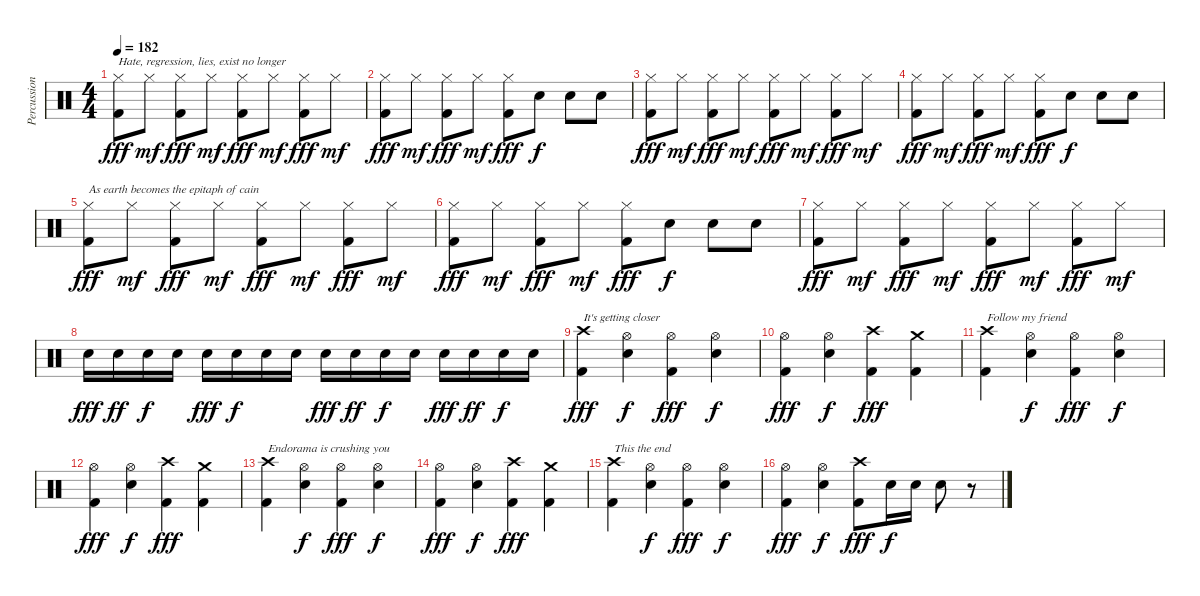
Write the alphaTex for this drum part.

\track ("Percussion" "Percussion") {instrument percussion}
\staff {score}
\articulation defaults
\ts (4 4)
\tempo 182
\clef neutral
\ks c
("Hi-Hat (closed)" "Kick (hit) 2").8{txt "Hate, regression, lies, exist no longer" dy fff} "Hi-Hat (closed)".8{dy mf} ("Hi-Hat (closed)" "Kick (hit) 2").8{dy fff} "Hi-Hat (closed)".8{dy mf} ("Hi-Hat (closed)" "Kick (hit) 2").8{dy fff} "Hi-Hat (closed)".8{dy mf} ("Hi-Hat (closed)" "Kick (hit) 2").8{dy fff} "Hi-Hat (closed)".8{dy mf} |
("Hi-Hat (closed)" "Kick (hit) 2").8{dy fff} "Hi-Hat (closed)".8{dy mf} ("Hi-Hat (closed)" "Kick (hit) 2").8{dy fff} "Hi-Hat (closed)".8{dy mf} ("Hi-Hat (closed)" "Kick (hit) 2").8{dy fff} "Snare (hit) 2".8{dy f} "Snare (hit) 2".8 "Snare (hit) 2".8 |
("Hi-Hat (closed)" "Kick (hit) 2").8{dy fff} "Hi-Hat (closed)".8{dy mf} ("Hi-Hat (closed)" "Kick (hit) 2").8{dy fff} "Hi-Hat (closed)".8{dy mf} ("Hi-Hat (closed)" "Kick (hit) 2").8{dy fff} "Hi-Hat (closed)".8{dy mf} ("Hi-Hat (closed)" "Kick (hit) 2").8{dy fff} "Hi-Hat (closed)".8{dy mf} |
("Hi-Hat (closed)" "Kick (hit) 2").8{dy fff} "Hi-Hat (closed)".8{dy mf} ("Hi-Hat (closed)" "Kick (hit) 2").8{dy fff} "Hi-Hat (closed)".8{dy mf} ("Hi-Hat (closed)" "Kick (hit) 2").8{dy fff} "Snare (hit) 2".8{dy f} "Snare (hit) 2".8 "Snare (hit) 2".8 |
("Hi-Hat (closed)" "Kick (hit) 2").8{txt "As earth becomes the epitaph of cain" dy fff} "Hi-Hat (closed)".8{dy mf} ("Hi-Hat (closed)" "Kick (hit) 2").8{dy fff} "Hi-Hat (closed)".8{dy mf} ("Hi-Hat (closed)" "Kick (hit) 2").8{dy fff} "Hi-Hat (closed)".8{dy mf} ("Hi-Hat (closed)" "Kick (hit) 2").8{dy fff} "Hi-Hat (closed)".8{dy mf} |
("Hi-Hat (closed)" "Kick (hit) 2").8{dy fff} "Hi-Hat (closed)".8{dy mf} ("Hi-Hat (closed)" "Kick (hit) 2").8{dy fff} "Hi-Hat (closed)".8{dy mf} ("Hi-Hat (closed)" "Kick (hit) 2").8{dy fff} "Snare (hit) 2".8{dy f} "Snare (hit) 2".8 "Snare (hit) 2".8 |
("Hi-Hat (closed)" "Kick (hit) 2").8{dy fff} "Hi-Hat (closed)".8{dy mf} ("Hi-Hat (closed)" "Kick (hit) 2").8{dy fff} "Hi-Hat (closed)".8{dy mf} ("Hi-Hat (closed)" "Kick (hit) 2").8{dy fff} "Hi-Hat (closed)".8{dy mf} ("Hi-Hat (closed)" "Kick (hit) 2").8{dy fff} "Hi-Hat (closed)".8{dy mf} |
"Snare (hit) 2".16{dy fff} "Snare (hit) 2".16{dy ff} "Snare (hit) 2".16{dy f} "Snare (hit) 2".16 "Snare (hit) 2".16{dy fff} "Snare (hit) 2".16{dy f} "Snare (hit) 2".16 "Snare (hit) 2".16 "Snare (hit) 2".16{dy fff} "Snare (hit) 2".16{dy ff} "Snare (hit) 2".16{dy f} "Snare (hit) 2".16 "Snare (hit) 2".16{dy fff} "Snare (hit) 2".16{dy ff} "Snare (hit) 2".16{dy f} "Snare (hit) 2".16 |
("Crash high (hit)" "Kick (hit) 2").4{txt "It's getting closer" dy fff} ("Hi-Hat (open)" "Snare (hit) 2").4{dy f} ("Hi-Hat (open)" "Kick (hit) 2").4{dy fff} ("Hi-Hat (open)" "Snare (hit) 2").4{dy f} |
("Hi-Hat (open)" "Kick (hit) 2").4{dy fff} ("Hi-Hat (open)" "Snare (hit) 2").4{dy f} ("Crash high (hit)" "Kick (hit) 2").4{dy fff} ("Crash medium (hit)" "Kick (hit) 2").4 |
("Crash high (hit)" "Kick (hit) 2").4{txt "Follow my friend"} ("Hi-Hat (open)" "Snare (hit) 2").4{dy f} ("Hi-Hat (open)" "Kick (hit) 2").4{dy fff} ("Hi-Hat (open)" "Snare (hit) 2").4{dy f} |
("Hi-Hat (open)" "Kick (hit) 2").4{dy fff} ("Hi-Hat (open)" "Snare (hit) 2").4{dy f} ("Crash high (hit)" "Kick (hit) 2").4{dy fff} ("Crash medium (hit)" "Kick (hit) 2").4 |
("Crash high (hit)" "Kick (hit) 2").4{txt "Endorama is crushing you"} ("Hi-Hat (open)" "Snare (hit) 2").4{dy f} ("Hi-Hat (open)" "Kick (hit) 2").4{dy fff} ("Hi-Hat (open)" "Snare (hit) 2").4{dy f} |
("Hi-Hat (open)" "Kick (hit) 2").4{dy fff} ("Hi-Hat (open)" "Snare (hit) 2").4{dy f} ("Crash high (hit)" "Kick (hit) 2").4{dy fff} ("Crash medium (hit)" "Kick (hit) 2").4 |
("Crash high (hit)" "Kick (hit) 2").4{txt "This the end"} ("Hi-Hat (open)" "Snare (hit) 2").4{dy f} ("Hi-Hat (open)" "Kick (hit) 2").4{dy fff} ("Hi-Hat (open)" "Snare (hit) 2").4{dy f} |
("Hi-Hat (open)" "Kick (hit) 2").4{dy fff} ("Hi-Hat (open)" "Snare (hit) 2").4{dy f} ("Crash high (hit)" "Kick (hit) 2").8{dy fff} "Snare (hit) 2".16{dy f} "Snare (hit) 2".16 "Snare (hit) 2".8 r.8
